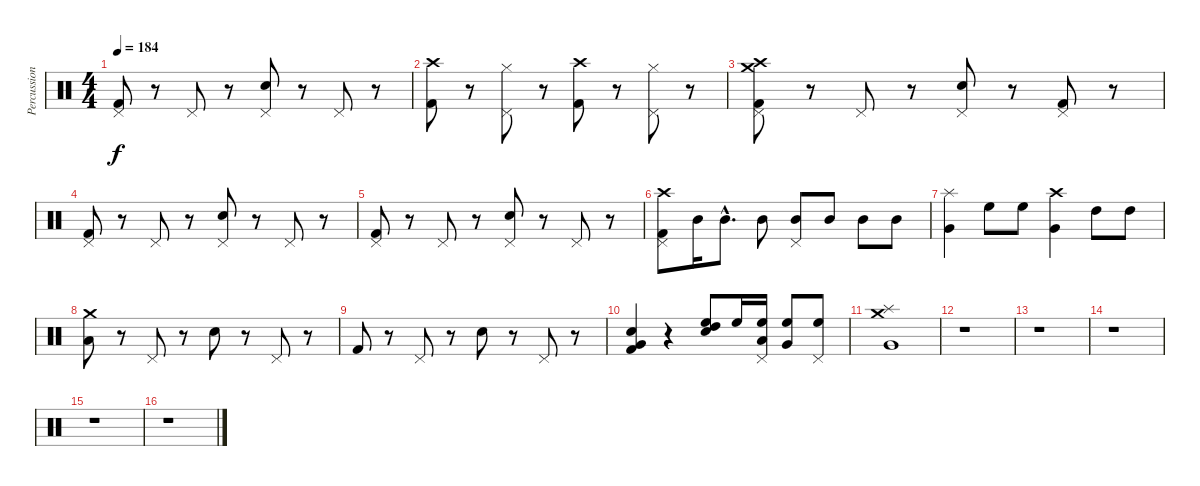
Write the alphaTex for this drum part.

\track ("Percussion" "Percussion") {instrument percussion}
\staff {score}
\articulation defaults
\ts (4 4)
\tempo 184
\clef neutral
\ks c
("Kick (hit) 2" "Pedal Hi-Hat (hit)").8{dy f} r.8 "Pedal Hi-Hat (hit)".8 r.8 ("Snare (hit) 2" "Pedal Hi-Hat (hit)").8 r.8 "Pedal Hi-Hat (hit)".8 r.8 |
("Kick (hit) 2" "Crash high (hit)").8 r.8 ("Pedal Hi-Hat (hit)" "Hi-Hat (closed)").8 r.8 ("Kick (hit) 2" "Crash high (hit)").8 r.8 ("Pedal Hi-Hat (hit)" "Hi-Hat (closed)").8 r.8 |
("Kick (hit) 2" "Crash medium (hit)" "Crash high (hit)" "Pedal Hi-Hat (hit)").8 r.8 "Pedal Hi-Hat (hit)".8 r.8 ("Snare (hit) 2" "Pedal Hi-Hat (hit)").8 r.8 ("Kick (hit) 2" "Pedal Hi-Hat (hit)").8 r.8 |
("Kick (hit) 2" "Pedal Hi-Hat (hit)").8 r.8 "Pedal Hi-Hat (hit)".8 r.8 ("Snare (hit) 2" "Pedal Hi-Hat (hit)").8 r.8 "Pedal Hi-Hat (hit)".8 r.8 |
("Kick (hit) 2" "Pedal Hi-Hat (hit)").8 r.8 "Pedal Hi-Hat (hit)".8 r.8 ("Snare (hit) 2" "Pedal Hi-Hat (hit)").8 r.8 "Pedal Hi-Hat (hit)".8 r.8 |
("Kick (hit) 2" "Pedal Hi-Hat (hit)" "Crash high (hit)").8 "Mid Tom (hit)".16 "Mid Tom (hit)"{hac}.8{d} "Mid Tom (hit)".8 ("Mid Tom (hit)" "Pedal Hi-Hat (hit)").8 "Mid Tom (hit)".8 "Mid Tom (hit)".8 "Mid Tom (hit)".8 |
("Very Low Tom (hit)" "Splash (hit)").4 "High Floor Tom (hit)".8 "High Floor Tom (hit)".8 ("Very Low Tom (hit)" "Crash high (hit)").4 "High Tom (hit)".8 "High Tom (hit)".8 |
("Low Floor Tom (hit)" "Crash medium (hit)").8 r.8 "Pedal Hi-Hat (hit)".8 r.8 "Snare (hit) 2".8 r.8 "Pedal Hi-Hat (hit)".8 r.8 |
"Kick (hit) 2".8 r.8 "Pedal Hi-Hat (hit)".8 r.8 "Snare (hit) 2".8 r.8 "Pedal Hi-Hat (hit)".8 r.8 |
("Kick (hit) 2" "Snare (hit) 2" "Very Low Tom (hit)").4 r.4 ("Snare (hit) 2" "High Tom (hit)" "High Floor Tom (hit)").8 "High Floor Tom (hit)".16 ("Low Tom (hit)" "Pedal Hi-Hat (hit)" "High Floor Tom (hit)").16 ("Very Low Tom (hit)" "High Floor Tom (hit)").8 ("Pedal Hi-Hat (hit)" "High Floor Tom (hit)").8 |
("Splash (hit)" "Very Low Tom (hit)" "Crash medium (hit)").1 |
r.1 |
r.1 |
r.1 |
r.1 |
r.1
